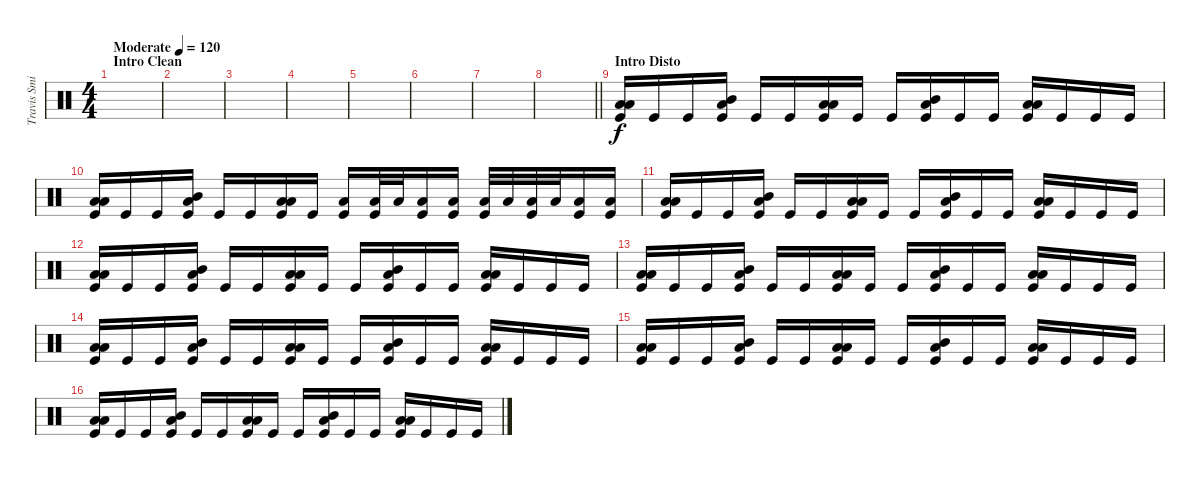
\track ("Travis Smith" "Travis Smi") {instrument percussion}
\staff {score}
\articulation defaults
\ts (4 4)
\section ("" "Intro Clean")
\tempo (120 "Moderate")
\clef neutral
\ks c
|
|
|
|
|
|
|
\barLineRight lightlight
|
\section ("" "Intro Disto")
("Low Tom (hit)" "Low Floor Tom (hit)" "Kick (hit)").16 "Kick (hit)".16 "Kick (hit)".16 ("Mid Tom (hit)" "Low Floor Tom (hit)" "Kick (hit)").16 "Kick (hit)".16 "Kick (hit)".16 ("Low Tom (hit)" "Low Floor Tom (hit)" "Kick (hit)").16 "Kick (hit)".16 "Kick (hit)".16 ("Mid Tom (hit)" "Low Floor Tom (hit)" "Kick (hit)").16 "Kick (hit)".16 "Kick (hit)".16 ("Low Tom (hit)" "Low Floor Tom (hit)" "Kick (hit)").16 "Kick (hit)".16 "Kick (hit)".16 "Kick (hit)".16 |
("Low Tom (hit)" "Low Floor Tom (hit)" "Kick (hit)").16 "Kick (hit)".16 "Kick (hit)".16 ("Mid Tom (hit)" "Low Floor Tom (hit)" "Kick (hit)").16 "Kick (hit)".16 "Kick (hit)".16 ("Low Tom (hit)" "Low Floor Tom (hit)" "Kick (hit)").16 "Kick (hit)".16 ("Low Tom (hit)" "Kick (hit)").16 ("Low Tom (hit)" "Kick (hit)").32 "Low Tom (hit)".32 ("Low Tom (hit)" "Kick (hit)").16 ("Low Tom (hit)" "Kick (hit)").16 ("Low Floor Tom (hit)" "Kick (hit)").32 "Low Floor Tom (hit)".32 ("Low Floor Tom (hit)" "Kick (hit)").32 "Low Floor Tom (hit)".32 ("Low Floor Tom (hit)" "Kick (hit)").16 ("Low Floor Tom (hit)" "Kick (hit)").16 |
("Low Tom (hit)" "Low Floor Tom (hit)" "Kick (hit)").16 "Kick (hit)".16 "Kick (hit)".16 ("Mid Tom (hit)" "Low Floor Tom (hit)" "Kick (hit)").16 "Kick (hit)".16 "Kick (hit)".16 ("Low Tom (hit)" "Low Floor Tom (hit)" "Kick (hit)").16 "Kick (hit)".16 "Kick (hit)".16 ("Mid Tom (hit)" "Low Floor Tom (hit)" "Kick (hit)").16 "Kick (hit)".16 "Kick (hit)".16 ("Low Tom (hit)" "Low Floor Tom (hit)" "Kick (hit)").16 "Kick (hit)".16 "Kick (hit)".16 "Kick (hit)".16 |
("Low Tom (hit)" "Low Floor Tom (hit)" "Kick (hit)").16 "Kick (hit)".16 "Kick (hit)".16 ("Mid Tom (hit)" "Low Floor Tom (hit)" "Kick (hit)").16 "Kick (hit)".16 "Kick (hit)".16 ("Low Tom (hit)" "Low Floor Tom (hit)" "Kick (hit)").16 "Kick (hit)".16 "Kick (hit)".16 ("Mid Tom (hit)" "Low Floor Tom (hit)" "Kick (hit)").16 "Kick (hit)".16 "Kick (hit)".16 ("Low Tom (hit)" "Low Floor Tom (hit)" "Kick (hit)").16 "Kick (hit)".16 "Kick (hit)".16 "Kick (hit)".16 |
("Low Tom (hit)" "Low Floor Tom (hit)" "Kick (hit)").16 "Kick (hit)".16 "Kick (hit)".16 ("Mid Tom (hit)" "Low Floor Tom (hit)" "Kick (hit)").16 "Kick (hit)".16 "Kick (hit)".16 ("Low Tom (hit)" "Low Floor Tom (hit)" "Kick (hit)").16 "Kick (hit)".16 "Kick (hit)".16 ("Mid Tom (hit)" "Low Floor Tom (hit)" "Kick (hit)").16 "Kick (hit)".16 "Kick (hit)".16 ("Low Tom (hit)" "Low Floor Tom (hit)" "Kick (hit)").16 "Kick (hit)".16 "Kick (hit)".16 "Kick (hit)".16 |
("Low Tom (hit)" "Low Floor Tom (hit)" "Kick (hit)").16 "Kick (hit)".16 "Kick (hit)".16 ("Mid Tom (hit)" "Low Floor Tom (hit)" "Kick (hit)").16 "Kick (hit)".16 "Kick (hit)".16 ("Low Tom (hit)" "Low Floor Tom (hit)" "Kick (hit)").16 "Kick (hit)".16 "Kick (hit)".16 ("Mid Tom (hit)" "Low Floor Tom (hit)" "Kick (hit)").16 "Kick (hit)".16 "Kick (hit)".16 ("Low Tom (hit)" "Low Floor Tom (hit)" "Kick (hit)").16 "Kick (hit)".16 "Kick (hit)".16 "Kick (hit)".16 |
("Low Tom (hit)" "Low Floor Tom (hit)" "Kick (hit)").16 "Kick (hit)".16 "Kick (hit)".16 ("Mid Tom (hit)" "Low Floor Tom (hit)" "Kick (hit)").16 "Kick (hit)".16 "Kick (hit)".16 ("Low Tom (hit)" "Low Floor Tom (hit)" "Kick (hit)").16 "Kick (hit)".16 "Kick (hit)".16 ("Mid Tom (hit)" "Low Floor Tom (hit)" "Kick (hit)").16 "Kick (hit)".16 "Kick (hit)".16 ("Low Tom (hit)" "Low Floor Tom (hit)" "Kick (hit)").16 "Kick (hit)".16 "Kick (hit)".16 "Kick (hit)".16 |
("Low Tom (hit)" "Low Floor Tom (hit)" "Kick (hit)").16 "Kick (hit)".16 "Kick (hit)".16 ("Mid Tom (hit)" "Low Floor Tom (hit)" "Kick (hit)").16 "Kick (hit)".16 "Kick (hit)".16 ("Low Tom (hit)" "Low Floor Tom (hit)" "Kick (hit)").16 "Kick (hit)".16 "Kick (hit)".16 ("Mid Tom (hit)" "Low Floor Tom (hit)" "Kick (hit)").16 "Kick (hit)".16 "Kick (hit)".16 ("Low Tom (hit)" "Low Floor Tom (hit)" "Kick (hit)").16 "Kick (hit)".16 "Kick (hit)".16 "Kick (hit)".16
